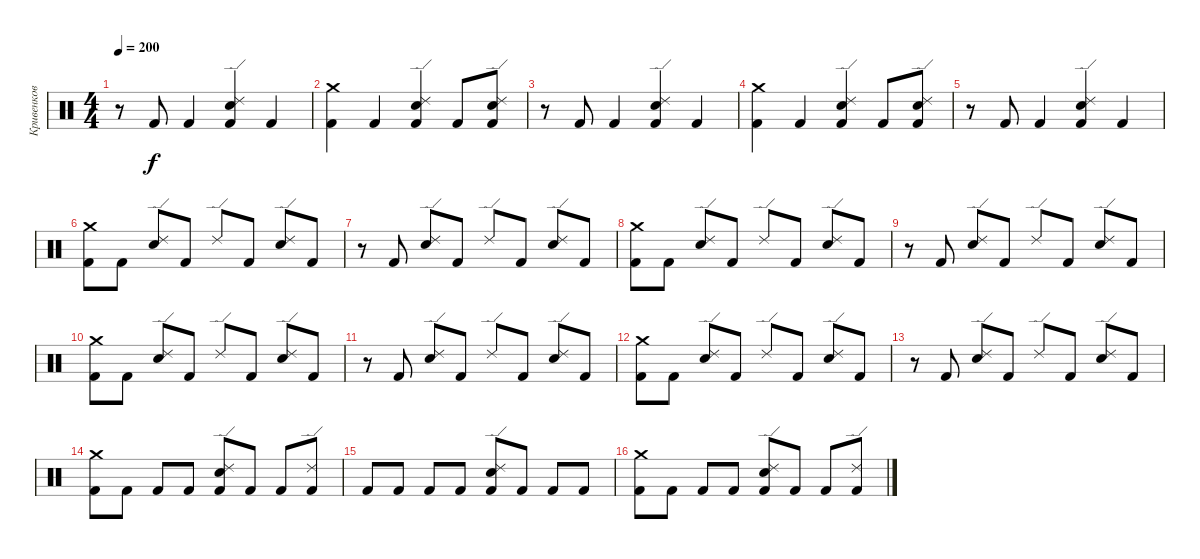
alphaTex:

\track ("Кривенков" "Кривенков") {instrument percussion}
\staff {score}
\articulation defaults
\ts (4 4)
\tempo 200
\clef neutral
\ks c
r.8{dy f} "Kick (hit) 2".8 "Kick (hit) 2".4 ("Ride (edge) 2" "Electric Snare (hit)" "Kick (hit) 2").4 "Kick (hit) 2".4 |
("Crash medium (hit)" "Kick (hit) 2").4 "Kick (hit) 2".4 ("Ride (edge) 2" "Electric Snare (hit)" "Kick (hit) 2").4 "Kick (hit) 2".8 ("Ride (edge) 2" "Electric Snare (hit)" "Kick (hit) 2").8 |
r.8 "Kick (hit) 2".8 "Kick (hit) 2".4 ("Ride (edge) 2" "Electric Snare (hit)" "Kick (hit) 2").4 "Kick (hit) 2".4 |
("Crash medium (hit)" "Kick (hit) 2").4 "Kick (hit) 2".4 ("Ride (edge) 2" "Electric Snare (hit)" "Kick (hit) 2").4 "Kick (hit) 2".8 ("Ride (edge) 2" "Electric Snare (hit)" "Kick (hit) 2").8 |
r.8 "Kick (hit) 2".8 "Kick (hit) 2".4 ("Ride (edge) 2" "Electric Snare (hit)" "Kick (hit) 2").4 "Kick (hit) 2".4 |
("Crash medium (hit)" "Kick (hit) 2").8 "Kick (hit) 2".8 ("Ride (edge) 2" "Electric Snare (hit)").8 "Kick (hit) 2".8 "Ride (edge) 2".8 "Kick (hit) 2".8 ("Ride (edge) 2" "Electric Snare (hit)").8 "Kick (hit) 2".8 |
r.8 "Kick (hit) 2".8 ("Ride (edge) 2" "Electric Snare (hit)").8 "Kick (hit) 2".8 "Ride (edge) 2".8 "Kick (hit) 2".8 ("Ride (edge) 2" "Electric Snare (hit)").8 "Kick (hit) 2".8 |
("Crash medium (hit)" "Kick (hit) 2").8 "Kick (hit) 2".8 ("Ride (edge) 2" "Electric Snare (hit)").8 "Kick (hit) 2".8 "Ride (edge) 2".8 "Kick (hit) 2".8 ("Ride (edge) 2" "Electric Snare (hit)").8 "Kick (hit) 2".8 |
r.8 "Kick (hit) 2".8 ("Ride (edge) 2" "Electric Snare (hit)").8 "Kick (hit) 2".8 "Ride (edge) 2".8 "Kick (hit) 2".8 ("Ride (edge) 2" "Electric Snare (hit)").8 "Kick (hit) 2".8 |
("Crash medium (hit)" "Kick (hit) 2").8 "Kick (hit) 2".8 ("Ride (edge) 2" "Electric Snare (hit)").8 "Kick (hit) 2".8 "Ride (edge) 2".8 "Kick (hit) 2".8 ("Ride (edge) 2" "Electric Snare (hit)").8 "Kick (hit) 2".8 |
r.8 "Kick (hit) 2".8 ("Ride (edge) 2" "Electric Snare (hit)").8 "Kick (hit) 2".8 "Ride (edge) 2".8 "Kick (hit) 2".8 ("Ride (edge) 2" "Electric Snare (hit)").8 "Kick (hit) 2".8 |
("Crash medium (hit)" "Kick (hit) 2").8 "Kick (hit) 2".8 ("Ride (edge) 2" "Electric Snare (hit)").8 "Kick (hit) 2".8 "Ride (edge) 2".8 "Kick (hit) 2".8 ("Ride (edge) 2" "Electric Snare (hit)").8 "Kick (hit) 2".8 |
r.8 "Kick (hit) 2".8 ("Ride (edge) 2" "Electric Snare (hit)").8 "Kick (hit) 2".8 "Ride (edge) 2".8 "Kick (hit) 2".8 ("Ride (edge) 2" "Electric Snare (hit)").8 "Kick (hit) 2".8 |
("Crash medium (hit)" "Kick (hit) 2").8 "Kick (hit) 2".8 "Kick (hit) 2".8 "Kick (hit) 2".8 ("Ride (edge) 2" "Electric Snare (hit)" "Kick (hit) 2").8 "Kick (hit) 2".8 "Kick (hit) 2".8 ("Ride (edge) 2" "Kick (hit) 2").8 |
"Kick (hit) 2".8 "Kick (hit) 2".8 "Kick (hit) 2".8 "Kick (hit) 2".8 ("Ride (edge) 2" "Electric Snare (hit)" "Kick (hit) 2").8 "Kick (hit) 2".8 "Kick (hit) 2".8 "Kick (hit) 2".8 |
("Crash medium (hit)" "Kick (hit) 2").8 "Kick (hit) 2".8 "Kick (hit) 2".8 "Kick (hit) 2".8 ("Ride (edge) 2" "Electric Snare (hit)" "Kick (hit) 2").8 "Kick (hit) 2".8 "Kick (hit) 2".8 ("Ride (edge) 2" "Kick (hit) 2").8
